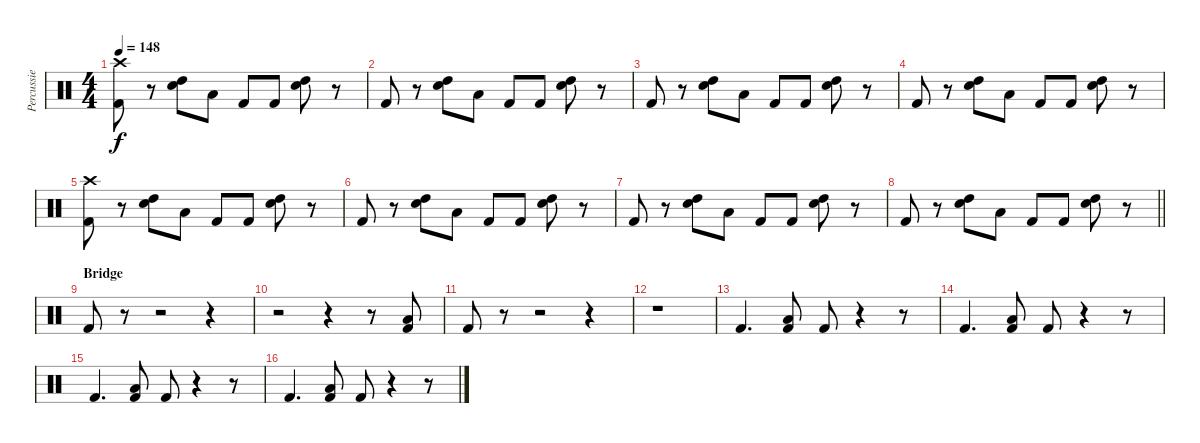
\track ("Percussie" "Percussie") {instrument percussion}
\staff {score}
\articulation defaults
\ts (4 4)
\tempo 148
\clef neutral
\ks c
("Crash high (hit)" "Kick (hit) 2").8{dy f} r.8 ("Electric Snare (hit)" "High Tom (hit)").8 "Low Tom (hit)".8 "Kick (hit) 2".8 "Kick (hit) 2".8 ("Electric Snare (hit)" "High Tom (hit)").8 r.8 |
"Kick (hit) 2".8 r.8 ("Electric Snare (hit)" "High Tom (hit)").8 "Low Tom (hit)".8 "Kick (hit) 2".8 "Kick (hit) 2".8 ("Electric Snare (hit)" "High Tom (hit)").8 r.8 |
"Kick (hit) 2".8 r.8 ("Electric Snare (hit)" "High Tom (hit)").8 "Low Tom (hit)".8 "Kick (hit) 2".8 "Kick (hit) 2".8 ("Electric Snare (hit)" "High Tom (hit)").8 r.8 |
"Kick (hit) 2".8 r.8 ("Electric Snare (hit)" "High Tom (hit)").8 "Low Tom (hit)".8 "Kick (hit) 2".8 "Kick (hit) 2".8 ("Electric Snare (hit)" "High Tom (hit)").8 r.8 |
("Crash high (hit)" "Kick (hit) 2").8 r.8 ("Electric Snare (hit)" "High Tom (hit)").8 "Low Tom (hit)".8 "Kick (hit) 2".8 "Kick (hit) 2".8 ("Electric Snare (hit)" "High Tom (hit)").8 r.8 |
"Kick (hit) 2".8 r.8 ("Electric Snare (hit)" "High Tom (hit)").8 "Low Tom (hit)".8 "Kick (hit) 2".8 "Kick (hit) 2".8 ("Electric Snare (hit)" "High Tom (hit)").8 r.8 |
"Kick (hit) 2".8 r.8 ("Electric Snare (hit)" "High Tom (hit)").8 "Low Tom (hit)".8 "Kick (hit) 2".8 "Kick (hit) 2".8 ("Electric Snare (hit)" "High Tom (hit)").8 r.8 |
\barLineRight lightlight "Kick (hit) 2".8
r.8 ("Electric Snare (hit)" "High Tom (hit)").8 "Low Tom (hit)".8 "Kick (hit) 2".8 "Kick (hit) 2".8 ("Electric Snare (hit)" "High Tom (hit)").8 r.8 |
\section ("" "Bridge")
"Kick (hit) 2".8 r.8 r.2 r.4 |
r.2 r.4 r.8 ("Low Tom (hit)" "Kick (hit) 2").8 |
"Kick (hit) 2".8 r.8 r.2 r.4 |
r.1 |
"Kick (hit) 2".4{d} ("Low Tom (hit)" "Kick (hit) 2").8 "Kick (hit) 2".8 r.4 r.8 |
"Kick (hit) 2".4{d} ("Low Tom (hit)" "Kick (hit) 2").8 "Kick (hit) 2".8 r.4 r.8 |
"Kick (hit) 2".4{d} ("Low Tom (hit)" "Kick (hit) 2").8 "Kick (hit) 2".8 r.4 r.8 |
"Kick (hit) 2".4{d} ("Low Tom (hit)" "Kick (hit) 2").8 "Kick (hit) 2".8 r.4 r.8
